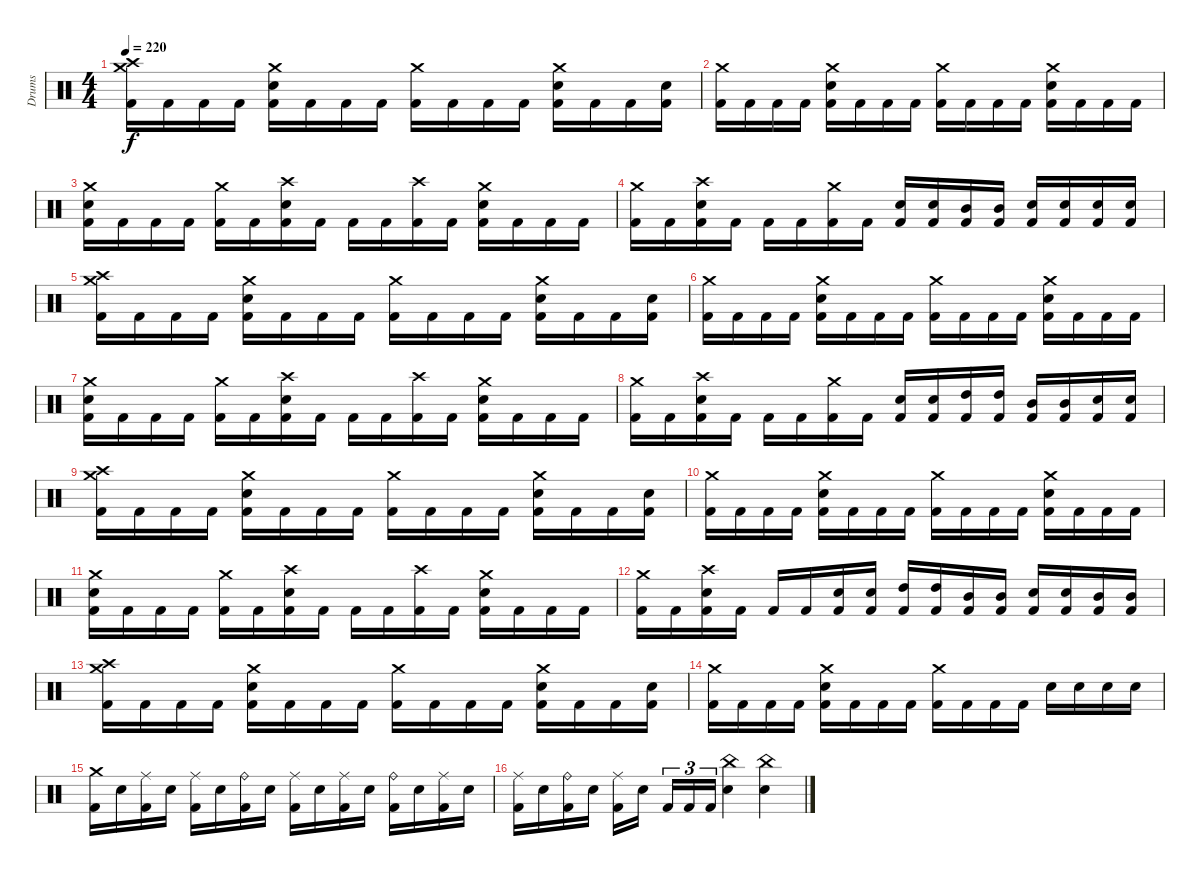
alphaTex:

\track ("Drums" "Drums") {instrument percussion}
\staff {score}
\articulation defaults
\ts (4 4)
\tempo 220
\clef neutral
\ks c
("Crash medium (hit)" "Crash high (hit)" "Kick (hit) 2").16{dy f} "Kick (hit) 2".16 "Kick (hit) 2".16 "Kick (hit) 2".16 ("Crash medium (hit)" "Electric Snare (hit)" "Kick (hit) 2").16 "Kick (hit) 2".16 "Kick (hit) 2".16 "Kick (hit) 2".16 ("Crash medium (hit)" "Kick (hit) 2").16 "Kick (hit) 2".16 "Kick (hit) 2".16 "Kick (hit) 2".16 ("Crash medium (hit)" "Electric Snare (hit)" "Kick (hit) 2").16 "Kick (hit) 2".16 "Kick (hit) 2".16 ("Electric Snare (hit)" "Kick (hit) 2").16 |
("Crash medium (hit)" "Kick (hit) 2").16 "Kick (hit) 2".16 "Kick (hit) 2".16 "Kick (hit) 2".16 ("Crash medium (hit)" "Electric Snare (hit)" "Kick (hit) 2").16 "Kick (hit) 2".16 "Kick (hit) 2".16 "Kick (hit) 2".16 ("Crash medium (hit)" "Kick (hit) 2").16 "Kick (hit) 2".16 "Kick (hit) 2".16 "Kick (hit) 2".16 ("Crash medium (hit)" "Electric Snare (hit)" "Kick (hit) 2").16 "Kick (hit) 2".16 "Kick (hit) 2".16 "Kick (hit) 2".16 |
("Crash medium (hit)" "Electric Snare (hit)" "Kick (hit) 2").16 "Kick (hit) 2".16 "Kick (hit) 2".16 "Kick (hit) 2".16 ("Crash medium (hit)" "Kick (hit) 2").16 "Kick (hit) 2".16 ("Crash high (hit)" "Electric Snare (hit)" "Kick (hit) 2").16 "Kick (hit) 2".16 "Kick (hit) 2".16 "Kick (hit) 2".16 ("Crash high (hit)" "Kick (hit) 2").16 "Kick (hit) 2".16 ("Crash medium (hit)" "Electric Snare (hit)" "Kick (hit) 2").16 "Kick (hit) 2".16 "Kick (hit) 2".16 "Kick (hit) 2".16 |
("Crash medium (hit)" "Kick (hit) 2").16 "Kick (hit) 2".16 ("Crash high (hit)" "Electric Snare (hit)" "Kick (hit) 2").16 "Kick (hit) 2".16 "Kick (hit) 2".16 "Kick (hit) 2".16 ("Crash medium (hit)" "Kick (hit) 2").16 "Kick (hit) 2".16 ("Electric Snare (hit)" "Kick (hit) 2").16 ("Electric Snare (hit)" "Kick (hit) 2").16 ("Mid Tom (hit)" "Kick (hit) 2").16 ("Mid Tom (hit)" "Kick (hit) 2").16 ("Electric Snare (hit)" "Kick (hit) 2").16 ("Electric Snare (hit)" "Kick (hit) 2").16 ("Electric Snare (hit)" "Kick (hit) 2").16 ("Electric Snare (hit)" "Kick (hit) 2").16 |
("Crash medium (hit)" "Crash high (hit)" "Kick (hit) 2").16 "Kick (hit) 2".16 "Kick (hit) 2".16 "Kick (hit) 2".16 ("Crash medium (hit)" "Electric Snare (hit)" "Kick (hit) 2").16 "Kick (hit) 2".16 "Kick (hit) 2".16 "Kick (hit) 2".16 ("Crash medium (hit)" "Kick (hit) 2").16 "Kick (hit) 2".16 "Kick (hit) 2".16 "Kick (hit) 2".16 ("Crash medium (hit)" "Electric Snare (hit)" "Kick (hit) 2").16 "Kick (hit) 2".16 "Kick (hit) 2".16 ("Electric Snare (hit)" "Kick (hit) 2").16 |
("Crash medium (hit)" "Kick (hit) 2").16 "Kick (hit) 2".16 "Kick (hit) 2".16 "Kick (hit) 2".16 ("Crash medium (hit)" "Electric Snare (hit)" "Kick (hit) 2").16 "Kick (hit) 2".16 "Kick (hit) 2".16 "Kick (hit) 2".16 ("Crash medium (hit)" "Kick (hit) 2").16 "Kick (hit) 2".16 "Kick (hit) 2".16 "Kick (hit) 2".16 ("Crash medium (hit)" "Electric Snare (hit)" "Kick (hit) 2").16 "Kick (hit) 2".16 "Kick (hit) 2".16 "Kick (hit) 2".16 |
("Crash medium (hit)" "Electric Snare (hit)" "Kick (hit) 2").16 "Kick (hit) 2".16 "Kick (hit) 2".16 "Kick (hit) 2".16 ("Crash medium (hit)" "Kick (hit) 2").16 "Kick (hit) 2".16 ("Crash high (hit)" "Electric Snare (hit)" "Kick (hit) 2").16 "Kick (hit) 2".16 "Kick (hit) 2".16 "Kick (hit) 2".16 ("Crash high (hit)" "Kick (hit) 2").16 "Kick (hit) 2".16 ("Crash medium (hit)" "Electric Snare (hit)" "Kick (hit) 2").16 "Kick (hit) 2".16 "Kick (hit) 2".16 "Kick (hit) 2".16 |
("Crash medium (hit)" "Kick (hit) 2").16 "Kick (hit) 2".16 ("Crash high (hit)" "Electric Snare (hit)" "Kick (hit) 2").16 "Kick (hit) 2".16 "Kick (hit) 2".16 "Kick (hit) 2".16 ("Crash medium (hit)" "Kick (hit) 2").16 "Kick (hit) 2".16 ("Electric Snare (hit)" "Kick (hit) 2").16 ("Electric Snare (hit)" "Kick (hit) 2").16 ("High Tom (hit)" "Kick (hit) 2").16 ("High Tom (hit)" "Kick (hit) 2").16 ("Mid Tom (hit)" "Kick (hit) 2").16 ("Mid Tom (hit)" "Kick (hit) 2").16 ("Electric Snare (hit)" "Kick (hit) 2").16 ("Electric Snare (hit)" "Kick (hit) 2").16 |
("Crash medium (hit)" "Crash high (hit)" "Kick (hit) 2").16 "Kick (hit) 2".16 "Kick (hit) 2".16 "Kick (hit) 2".16 ("Crash medium (hit)" "Electric Snare (hit)" "Kick (hit) 2").16 "Kick (hit) 2".16 "Kick (hit) 2".16 "Kick (hit) 2".16 ("Crash medium (hit)" "Kick (hit) 2").16 "Kick (hit) 2".16 "Kick (hit) 2".16 "Kick (hit) 2".16 ("Crash medium (hit)" "Electric Snare (hit)" "Kick (hit) 2").16 "Kick (hit) 2".16 "Kick (hit) 2".16 ("Electric Snare (hit)" "Kick (hit) 2").16 |
("Crash medium (hit)" "Kick (hit) 2").16 "Kick (hit) 2".16 "Kick (hit) 2".16 "Kick (hit) 2".16 ("Crash medium (hit)" "Electric Snare (hit)" "Kick (hit) 2").16 "Kick (hit) 2".16 "Kick (hit) 2".16 "Kick (hit) 2".16 ("Crash medium (hit)" "Kick (hit) 2").16 "Kick (hit) 2".16 "Kick (hit) 2".16 "Kick (hit) 2".16 ("Crash medium (hit)" "Electric Snare (hit)" "Kick (hit) 2").16 "Kick (hit) 2".16 "Kick (hit) 2".16 "Kick (hit) 2".16 |
("Crash medium (hit)" "Electric Snare (hit)" "Kick (hit) 2").16 "Kick (hit) 2".16 "Kick (hit) 2".16 "Kick (hit) 2".16 ("Crash medium (hit)" "Kick (hit) 2").16 "Kick (hit) 2".16 ("Crash high (hit)" "Electric Snare (hit)" "Kick (hit) 2").16 "Kick (hit) 2".16 "Kick (hit) 2".16 "Kick (hit) 2".16 ("Crash high (hit)" "Kick (hit) 2").16 "Kick (hit) 2".16 ("Crash medium (hit)" "Electric Snare (hit)" "Kick (hit) 2").16 "Kick (hit) 2".16 "Kick (hit) 2".16 "Kick (hit) 2".16 |
("Crash medium (hit)" "Kick (hit) 2").16 "Kick (hit) 2".16 ("Crash high (hit)" "Electric Snare (hit)" "Kick (hit) 2").16 "Kick (hit) 2".16 "Kick (hit) 2".16 "Kick (hit) 2".16 ("Electric Snare (hit)" "Kick (hit) 2").16 ("Electric Snare (hit)" "Kick (hit) 2").16 ("High Tom (hit)" "Kick (hit) 2").16 ("High Tom (hit)" "Kick (hit) 2").16 ("Mid Tom (hit)" "Kick (hit) 2").16 ("Mid Tom (hit)" "Kick (hit) 2").16 ("Electric Snare (hit)" "Kick (hit) 2").16 ("Electric Snare (hit)" "Kick (hit) 2").16 ("Mid Tom (hit)" "Kick (hit) 2").16 ("Mid Tom (hit)" "Kick (hit) 2").16 |
("Crash medium (hit)" "Crash high (hit)" "Kick (hit) 2").16 "Kick (hit) 2".16 "Kick (hit) 2".16 "Kick (hit) 2".16 ("Crash medium (hit)" "Electric Snare (hit)" "Kick (hit) 2").16 "Kick (hit) 2".16 "Kick (hit) 2".16 "Kick (hit) 2".16 ("Crash medium (hit)" "Kick (hit) 2").16 "Kick (hit) 2".16 "Kick (hit) 2".16 "Kick (hit) 2".16 ("Crash medium (hit)" "Electric Snare (hit)" "Kick (hit) 2").16 "Kick (hit) 2".16 "Kick (hit) 2".16 ("Electric Snare (hit)" "Kick (hit) 2").16 |
("Crash medium (hit)" "Kick (hit) 2").16 "Kick (hit) 2".16 "Kick (hit) 2".16 "Kick (hit) 2".16 ("Crash medium (hit)" "Electric Snare (hit)" "Kick (hit) 2").16 "Kick (hit) 2".16 "Kick (hit) 2".16 "Kick (hit) 2".16 ("Crash medium (hit)" "Kick (hit) 2").16 "Kick (hit) 2".16 "Kick (hit) 2".16 "Kick (hit) 2".16 "Electric Snare (hit)".16 "Electric Snare (hit)".16 "Electric Snare (hit)".16 "Electric Snare (hit)".16 |
("Crash medium (hit)" "Kick (hit) 2").16 "Electric Snare (hit)".16 ("Ride (middle)" "Kick (hit) 2").16 "Electric Snare (hit)".16 ("Ride (middle)" "Kick (hit) 2").16 "Electric Snare (hit)".16 ("Ride (bell)" "Kick (hit) 2").16 "Electric Snare (hit)".16 ("Ride (middle)" "Kick (hit) 2").16 "Electric Snare (hit)".16 ("Ride (middle)" "Kick (hit) 2").16 "Electric Snare (hit)".16 ("Ride (bell)" "Kick (hit) 2").16 "Electric Snare (hit)".16 ("Ride (middle)" "Kick (hit) 2").16 "Electric Snare (hit)".16 |
("Ride (middle)" "Kick (hit) 2").16 "Electric Snare (hit)".16 ("Ride (bell)" "Kick (hit) 2").16 "Electric Snare (hit)".16 ("Ride (middle)" "Kick (hit) 2").16 "Electric Snare (hit)".16{beam splitsecondary} "Kick (hit) 2".16{tu (3 2)} "Kick (hit) 2".16{tu (3 2)} "Kick (hit) 2".16{tu (3 2)} ("China (hit)" "Electric Snare (hit)").4 ("China (hit)" "Electric Snare (hit)").4
